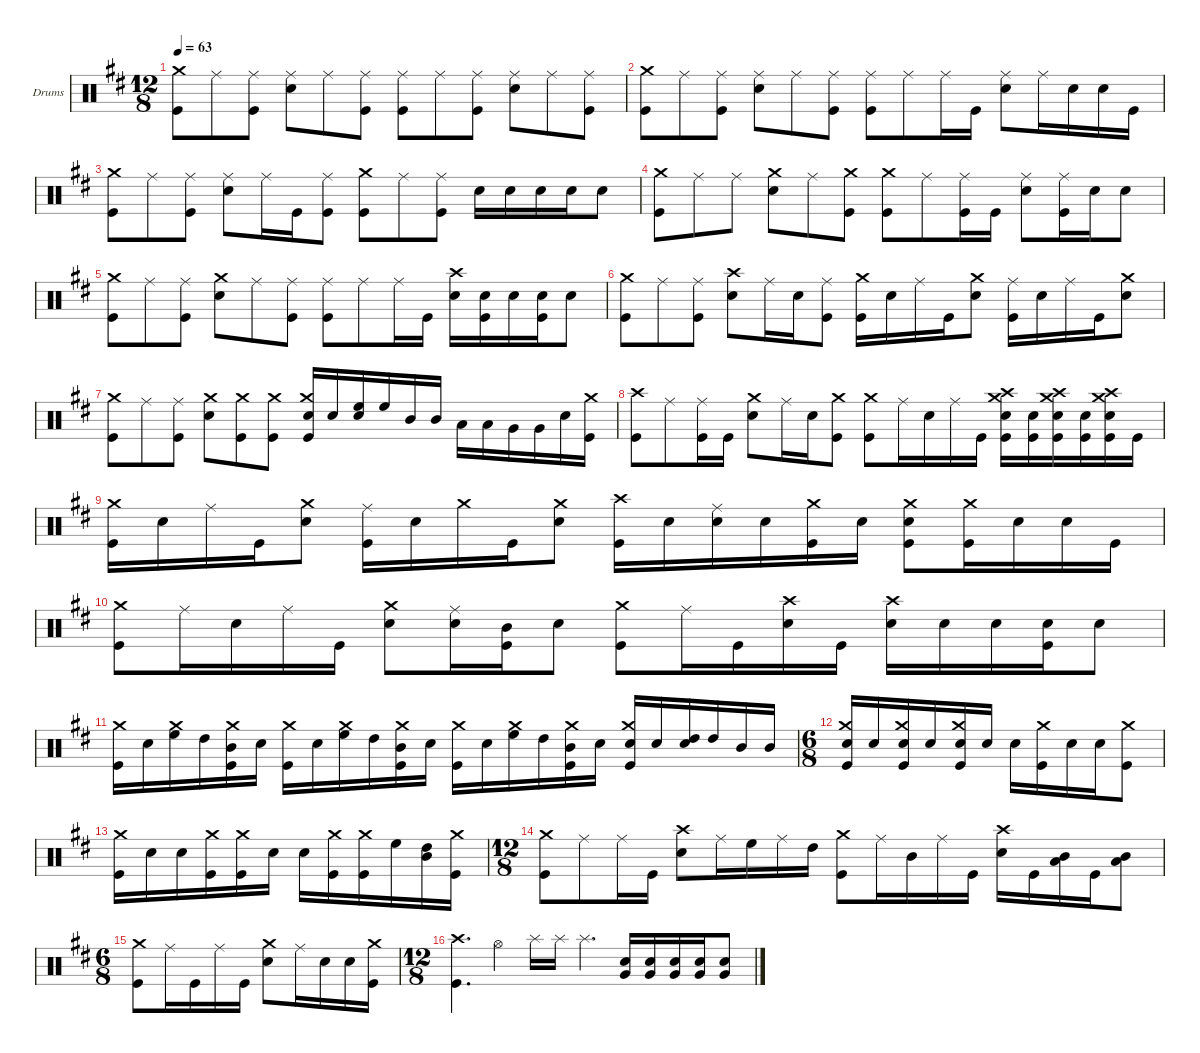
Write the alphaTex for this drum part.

\defaultSystemsLayout 4
\hideDynamics
\bracketExtendMode groupsimilarinstruments
\firstSystemTrackNameOrientation horizontal
\otherSystemsTrackNameOrientation horizontal
\track ("Batterie" "Drums") {multiBarRest instrument percussion}
\staff {score}
\articulation defaults
\ts (12 8)
\tempo 63
\clef neutral
\ks d
("Kick (hit)" "Crash medium (hit)").8{dy ff} "Ride (middle)".8 ("Kick (hit)" "Ride (middle)").8 ("Snare (hit) 2" "Ride (middle)").8 "Ride (middle)".8 ("Kick (hit)" "Ride (middle)").8 ("Kick (hit)" "Ride (middle)").8 "Ride (middle)".8 ("Kick (hit)" "Ride (middle)").8 ("Snare (hit) 2" "Ride (middle)").8 "Ride (middle)".8 ("Kick (hit)" "Ride (middle)").8 |
("Kick (hit)" "Crash medium (hit)").8 "Ride (middle)".8 ("Kick (hit)" "Ride (middle)").8 ("Snare (hit) 2" "Ride (middle)").8 "Ride (middle)".8 ("Kick (hit)" "Ride (middle)").8 ("Kick (hit)" "Ride (middle)").8 "Ride (middle)".8 "Ride (middle)".16 "Kick (hit)".16 ("Snare (hit) 2" "Ride (middle)").8 "Ride (middle)".16 "Snare (hit) 2".16 "Snare (hit) 2".16 "Kick (hit)".16 |
("Kick (hit)" "Crash medium (hit)").8 "Ride (middle)".8 ("Kick (hit)" "Ride (middle)").8 ("Snare (hit) 2" "Ride (middle)").8 "Ride (middle)".16 "Kick (hit)".16 ("Kick (hit)" "Ride (middle)").8 ("Kick (hit)" "Crash medium (hit)").8 "Ride (middle)".8 ("Kick (hit)" "Ride (middle)").8 "Snare (hit) 2".16 "Snare (hit) 2".16 "Snare (hit) 2".16 "Snare (hit) 2".16 "Snare (hit) 2".8 |
("Kick (hit)" "Crash medium (hit)").8 "Ride (middle)".8 "Ride (middle)".8 ("Snare (hit) 2" "Crash medium (hit)").8 "Ride (middle)".8 ("Kick (hit)" "Crash medium (hit)").8 ("Kick (hit)" "Crash medium (hit)").8 "Ride (middle)".8 ("Kick (hit)" "Ride (middle)").16 "Kick (hit)".16 ("Snare (hit) 2" "Ride (middle)").8 ("Kick (hit)" "Ride (middle)").16 "Snare (hit) 2".16 "Snare (hit) 2".8 |
("Kick (hit)" "Crash medium (hit)").8 "Ride (middle)".8 ("Kick (hit)" "Ride (middle)").8 ("Snare (hit) 2" "Crash medium (hit)").8 "Ride (middle)".8 ("Kick (hit)" "Ride (middle)").8 ("Kick (hit)" "Ride (middle)").8 "Ride (middle)".8 "Ride (middle)".16 "Kick (hit)".16 ("Snare (hit) 2" "Crash high (hit)").16 ("Kick (hit)" "Snare (hit) 2").16 "Snare (hit) 2".16 ("Kick (hit)" "Snare (hit) 2").16 "Snare (hit) 2".8 |
("Kick (hit)" "Crash medium (hit)").8 "Ride (middle)".8 ("Kick (hit)" "Ride (middle)").8 ("Snare (hit) 2" "Crash high (hit)").8 "Ride (middle)".16 "Snare (hit) 2".16 ("Kick (hit)" "Ride (middle)").8 ("Kick (hit)" "Crash medium (hit)").16 "Snare (hit) 2".16 "Ride (middle)".16 "Kick (hit)".16 ("Snare (hit) 2" "Crash medium (hit)").8 ("Kick (hit)" "Ride (middle)").16 "Snare (hit) 2".16 "Ride (middle)".16 "Kick (hit)".16 ("Snare (hit) 2" "Crash medium (hit)").8 |
("Kick (hit)" "Crash medium (hit)").8 "Ride (middle)".8 ("Kick (hit)" "Ride (middle)").8 ("Snare (hit) 2" "Crash medium (hit)").8 ("Kick (hit)" "Crash medium (hit)").8 ("Kick (hit)" "Crash medium (hit)").8 ("Kick (hit)" "Crash medium (hit)" "Snare (hit) 2").16 "Snare (hit) 2".16 ("Snare (hit) 2" "High Floor Tom (hit)").16 "High Floor Tom (hit)".16 "Mid Tom (hit)".16 "Mid Tom (hit)".16 "Low Tom (hit)".16 "Low Tom (hit)".16 "Very Low Tom (hit)".16 "Very Low Tom (hit)".16 "Snare (hit) 2".16 ("Kick (hit)" "Crash medium (hit)").16 |
("Kick (hit)" "Crash high (hit)").8 "Ride (middle)".8 ("Kick (hit)" "Ride (middle)").16 "Kick (hit)".16 ("Snare (hit) 2" "Crash medium (hit)").8 "Ride (middle)".16 "Snare (hit) 2".16 ("Kick (hit)" "Crash medium (hit)").8 ("Kick (hit)" "Crash medium (hit)").8 "Ride (middle)".16 "Snare (hit) 2".16 "Ride (middle)".16 "Kick (hit)".16 ("Kick (hit)" "Snare (hit) 2" "Crash medium (hit)" "Crash high (hit)").16 ("Kick (hit)" "Snare (hit) 2").16 ("Kick (hit)" "Snare (hit) 2" "Crash medium (hit)" "Crash high (hit)").16 ("Kick (hit)" "Snare (hit) 2").16 ("Kick (hit)" "Snare (hit) 2" "Crash medium (hit)" "Crash high (hit)").16 "Kick (hit)".16 |
("Kick (hit)" "Crash medium (hit)").16 "Snare (hit) 2".16 "Ride (middle)".16 "Kick (hit)".16 ("Snare (hit) 2" "Crash medium (hit)").8 ("Kick (hit)" "Ride (middle)").16 "Snare (hit) 2".16 "Crash medium (hit)".16 "Kick (hit)".16 ("Snare (hit) 2" "Crash medium (hit)").8 ("Kick (hit)" "Crash high (hit)").16 "Snare (hit) 2".16 ("Ride (middle)" "Snare (hit) 2").16 "Snare (hit) 2".16 ("Kick (hit)" "Crash medium (hit)").16 "Snare (hit) 2".16 ("Snare (hit) 2" "Kick (hit)" "Crash medium (hit)").8 ("Kick (hit)" "Crash medium (hit)").16 "Snare (hit) 2".16 "Snare (hit) 2".16 "Kick (hit)".16 |
("Kick (hit)" "Crash medium (hit)").8 "Ride (middle)".16 "Snare (hit) 2".16 "Ride (middle)".16 "Kick (hit)".16 ("Snare (hit) 2" "Crash medium (hit)").8 ("Snare (hit) 2" "Ride (middle)").16 ("Kick (hit)" "Mid Tom (hit)").16 "Snare (hit) 2".8 ("Kick (hit)" "Crash medium (hit)").8 "Ride (middle)".16 "Kick (hit)".16 ("Snare (hit) 2" "Crash high (hit)").16 "Kick (hit)".16 ("Snare (hit) 2" "Crash high (hit)").16 "Snare (hit) 2".16 "Snare (hit) 2".16 ("Kick (hit)" "Snare (hit) 2").16 "Snare (hit) 2".8 |
("Kick (hit)" "Crash medium (hit)").16 "Snare (hit) 2".16 ("Crash medium (hit)" "High Floor Tom (hit)").16 "High Tom (hit)".16 ("Kick (hit)" "Mid Tom (hit)" "Crash medium (hit)").16 "Snare (hit) 2".16 ("Kick (hit)" "Crash medium (hit)").16 "Snare (hit) 2".16 ("Crash medium (hit)" "High Floor Tom (hit)").16 "High Tom (hit)".16 ("Kick (hit)" "Mid Tom (hit)" "Crash medium (hit)").16 "Snare (hit) 2".16 ("Kick (hit)" "Crash medium (hit)").16 "Snare (hit) 2".16 ("Crash medium (hit)" "High Floor Tom (hit)").16 "High Tom (hit)".16 ("Kick (hit)" "Mid Tom (hit)" "Crash medium (hit)").16 "Snare (hit) 2".16 ("Kick (hit)" "Crash medium (hit)" "Snare (hit) 2").16 "Snare (hit) 2".16 ("Snare (hit) 2" "High Tom (hit)").16 "High Tom (hit)".16 "Mid Tom (hit)".16 "Mid Tom (hit)".16 |
\ts (6 8)
("Kick (hit)" "Crash medium (hit)" "Snare (hit) 2").16 "Snare (hit) 2".16 ("Snare (hit) 2" "Kick (hit)" "Crash medium (hit)").16 "Snare (hit) 2".16 ("Snare (hit) 2" "Kick (hit)" "Crash medium (hit)").16 "Snare (hit) 2".16 "Snare (hit) 2".16 ("Kick (hit)" "Crash medium (hit)").16 "Snare (hit) 2".16 "Snare (hit) 2".16 ("Kick (hit)" "Crash medium (hit)").8 |
("Kick (hit)" "Crash medium (hit)").16 "Snare (hit) 2".16 "Snare (hit) 2".16 ("Kick (hit)" "Crash medium (hit)").16 ("Kick (hit)" "Crash medium (hit)").16 "Snare (hit) 2".16 "Snare (hit) 2".16 ("Kick (hit)" "Crash medium (hit)").16 ("Kick (hit)" "Crash medium (hit)").16 "High Floor Tom (hit)".16 ("High Tom (hit)" "Mid Tom (hit)").16 ("Kick (hit)" "Crash medium (hit)").16 |
\ts (12 8)
("Kick (hit)" "Crash medium (hit)").8 "Ride (middle)".8 "Ride (middle)".16 "Kick (hit)".16 ("Snare (hit) 2" "Crash high (hit)").8 "Ride (middle)".16 "High Floor Tom (hit)".16 "Ride (middle)".16 "High Tom (hit)".16 ("Kick (hit)" "Crash medium (hit)").8 "Ride (middle)".16 "Mid Tom (hit)".16 "Ride (middle)".16 "Kick (hit)".16 ("Snare (hit) 2" "Crash high (hit)").16 "Kick (hit)".16 ("Low Tom (hit)" "Mid Tom (hit)").16 "Kick (hit)".16 ("Low Tom (hit)" "Mid Tom (hit)").8 |
\ts (6 8)
("Kick (hit)" "Crash medium (hit)").8 "Ride (middle)".16 "Kick (hit)".16 "Ride (middle)".16 "Kick (hit)".16 ("Snare (hit) 2" "Crash medium (hit)").8 "Ride (middle)".16 "Snare (hit) 2".16 "Snare (hit) 2".16 ("Kick (hit)" "Crash medium (hit)").16 |
\ts (12 8)
("Kick (hit)" "Crash high (hit)").4{d} "Hi-Hat (open)".4 "Splash (hit)".16 "Splash (hit)".16 "Splash (hit)".4{d} ("Snare (hit) 2" "Very Low Tom (hit)").16 ("Snare (hit) 2" "Very Low Tom (hit)").16 ("Snare (hit) 2" "Very Low Tom (hit)").16 ("Snare (hit) 2" "Very Low Tom (hit)").16 ("Snare (hit) 2" "Very Low Tom (hit)").8
